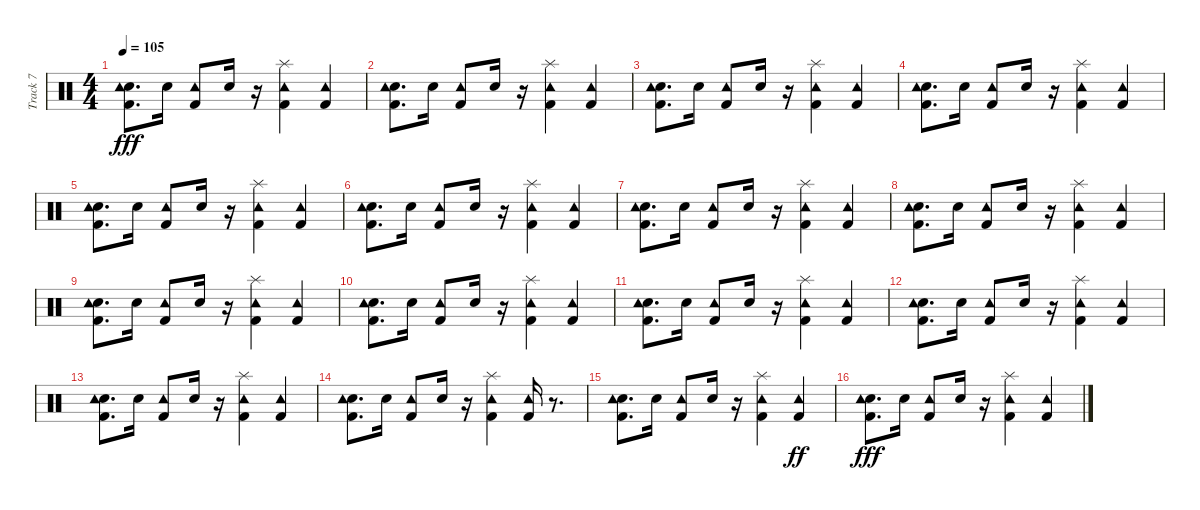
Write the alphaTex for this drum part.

\track ("Track 7" "Track 7") {instrument percussion}
\staff {score}
\articulation defaults
\ts (4 4)
\tempo 105
\clef neutral
\ks c
("Snare (hit) 2" "Kick (hit) 2" "Tambourine (hit)").8{d dy fff} "Snare (hit) 2".16 ("Kick (hit) 2" "Tambourine (hit)").8 "Snare (hit) 2".16 r.16 ("Kick (hit) 2" "Splash (hit)" "Tambourine (hit)").4 ("Kick (hit) 2" "Tambourine (hit)").4 |
("Kick (hit) 2" "Snare (hit) 2" "Tambourine (hit)").8{d} "Snare (hit) 2".16 ("Kick (hit) 2" "Tambourine (hit)").8 "Snare (hit) 2".16 r.16 ("Kick (hit) 2" "Splash (hit)" "Tambourine (hit)").4 ("Kick (hit) 2" "Tambourine (hit)").4 |
("Kick (hit) 2" "Snare (hit) 2" "Tambourine (hit)").8{d} "Snare (hit) 2".16 ("Kick (hit) 2" "Tambourine (hit)").8 "Snare (hit) 2".16 r.16 ("Kick (hit) 2" "Splash (hit)" "Tambourine (hit)").4 ("Kick (hit) 2" "Tambourine (hit)").4 |
("Kick (hit) 2" "Snare (hit) 2" "Tambourine (hit)").8{d} "Snare (hit) 2".16 ("Kick (hit) 2" "Tambourine (hit)").8 "Snare (hit) 2".16 r.16 ("Kick (hit) 2" "Splash (hit)" "Tambourine (hit)").4 ("Kick (hit) 2" "Tambourine (hit)").4 |
("Snare (hit) 2" "Kick (hit) 2" "Tambourine (hit)").8{d} "Snare (hit) 2".16 ("Kick (hit) 2" "Tambourine (hit)").8 "Snare (hit) 2".16 r.16 ("Splash (hit)" "Kick (hit) 2" "Tambourine (hit)").4 ("Kick (hit) 2" "Tambourine (hit)").4 |
("Snare (hit) 2" "Kick (hit) 2" "Tambourine (hit)").8{d} "Snare (hit) 2".16 ("Kick (hit) 2" "Tambourine (hit)").8 "Snare (hit) 2".16 r.16 ("Splash (hit)" "Kick (hit) 2" "Tambourine (hit)").4 ("Kick (hit) 2" "Tambourine (hit)").4 |
("Kick (hit) 2" "Snare (hit) 2" "Tambourine (hit)").8{d} "Snare (hit) 2".16 ("Kick (hit) 2" "Tambourine (hit)").8 "Snare (hit) 2".16 r.16 ("Kick (hit) 2" "Splash (hit)" "Tambourine (hit)").4 ("Kick (hit) 2" "Tambourine (hit)").4 |
("Kick (hit) 2" "Snare (hit) 2" "Tambourine (hit)").8{d} "Snare (hit) 2".16 ("Kick (hit) 2" "Tambourine (hit)").8 "Snare (hit) 2".16 r.16 ("Kick (hit) 2" "Splash (hit)" "Tambourine (hit)").4 ("Kick (hit) 2" "Tambourine (hit)").4 |
("Kick (hit) 2" "Snare (hit) 2" "Tambourine (hit)").8{d} "Snare (hit) 2".16 ("Kick (hit) 2" "Tambourine (hit)").8 "Snare (hit) 2".16 r.16 ("Kick (hit) 2" "Splash (hit)" "Tambourine (hit)").4 ("Kick (hit) 2" "Tambourine (hit)").4 |
("Kick (hit) 2" "Snare (hit) 2" "Tambourine (hit)").8{d} "Snare (hit) 2".16 ("Kick (hit) 2" "Tambourine (hit)").8 "Snare (hit) 2".16 r.16 ("Kick (hit) 2" "Splash (hit)" "Tambourine (hit)").4 ("Kick (hit) 2" "Tambourine (hit)").4 |
("Snare (hit) 2" "Kick (hit) 2" "Tambourine (hit)").8{d} "Snare (hit) 2".16 ("Kick (hit) 2" "Tambourine (hit)").8 "Snare (hit) 2".16 r.16 ("Kick (hit) 2" "Splash (hit)" "Tambourine (hit)").4 ("Kick (hit) 2" "Tambourine (hit)").4 |
("Kick (hit) 2" "Snare (hit) 2" "Tambourine (hit)").8{d} "Snare (hit) 2".16 ("Kick (hit) 2" "Tambourine (hit)").8 "Snare (hit) 2".16 r.16 ("Kick (hit) 2" "Splash (hit)" "Tambourine (hit)").4 ("Kick (hit) 2" "Tambourine (hit)").4 |
("Kick (hit) 2" "Snare (hit) 2" "Tambourine (hit)").8{d} "Snare (hit) 2".16 ("Kick (hit) 2" "Tambourine (hit)").8 "Snare (hit) 2".16 r.16 ("Splash (hit)" "Kick (hit) 2" "Tambourine (hit)").4 ("Kick (hit) 2" "Tambourine (hit)").4 |
("Kick (hit) 2" "Snare (hit) 2" "Tambourine (hit)").8{d} "Snare (hit) 2".16 ("Kick (hit) 2" "Tambourine (hit)").8 "Snare (hit) 2".16 r.16 ("Kick (hit) 2" "Splash (hit)" "Tambourine (hit)").4 ("Kick (hit) 2" "Tambourine (hit)").16 r.8{d} |
("Kick (hit) 2" "Snare (hit) 2" "Tambourine (hit)").8{d} "Snare (hit) 2".16 ("Kick (hit) 2" "Tambourine (hit)").8 "Snare (hit) 2".16 r.16 ("Kick (hit) 2" "Splash (hit)" "Tambourine (hit)").4 ("Kick (hit) 2" "Tambourine (hit)").4{dy ff} |
("Kick (hit) 2" "Snare (hit) 2" "Tambourine (hit)").8{d dy fff} "Snare (hit) 2".16 ("Kick (hit) 2" "Tambourine (hit)").8 "Snare (hit) 2".16 r.16 ("Kick (hit) 2" "Splash (hit)" "Tambourine (hit)").4 ("Kick (hit) 2" "Tambourine (hit)").4
